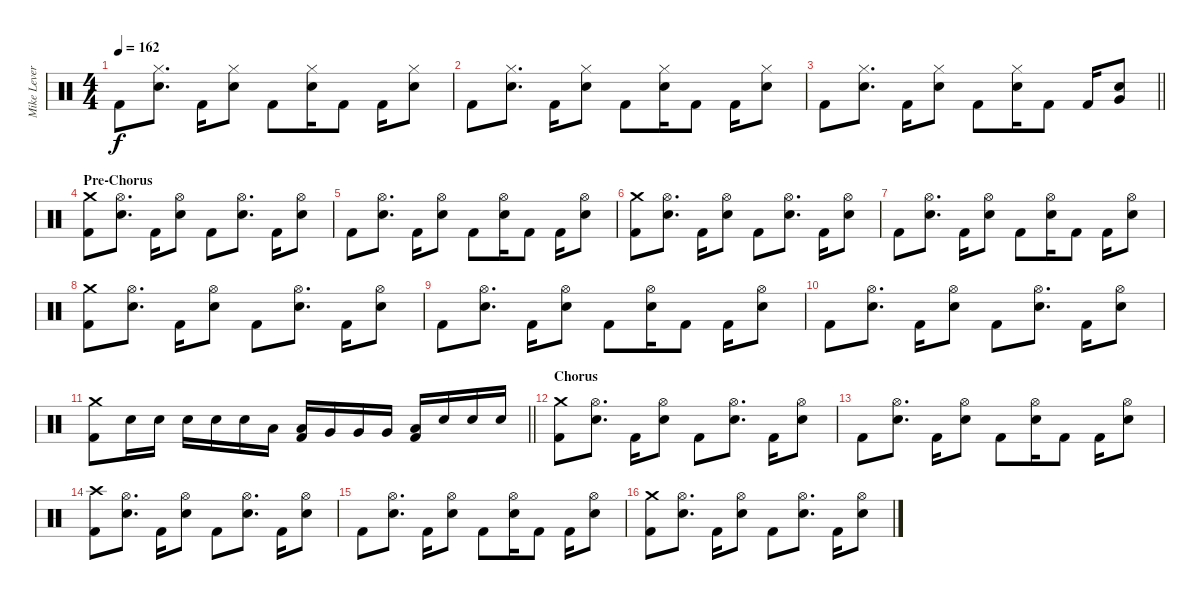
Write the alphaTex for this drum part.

\track ("Mike Leverence - Drums" "Mike Lever") {instrument percussion}
\staff {score}
\articulation defaults
\ts (4 4)
\tempo 162
\clef neutral
\ks c "Kick (hit) 2".8{dy f}
("Hi-Hat (closed)" "Electric Snare (hit)").8{d} "Kick (hit) 2".16 ("Hi-Hat (closed)" "Electric Snare (hit)").8 "Kick (hit) 2".8 ("Hi-Hat (closed)" "Electric Snare (hit)").16 "Kick (hit) 2".8 "Kick (hit) 2".16 ("Hi-Hat (closed)" "Electric Snare (hit)").8 |
"Kick (hit) 2".8 ("Hi-Hat (closed)" "Electric Snare (hit)").8{d} "Kick (hit) 2".16 ("Hi-Hat (closed)" "Electric Snare (hit)").8 "Kick (hit) 2".8 ("Hi-Hat (closed)" "Electric Snare (hit)").16 "Kick (hit) 2".8 "Kick (hit) 2".16 ("Hi-Hat (closed)" "Electric Snare (hit)").8 |
\barLineRight lightlight "Kick (hit) 2".8
("Hi-Hat (closed)" "Electric Snare (hit)").8{d} "Kick (hit) 2".16 ("Hi-Hat (closed)" "Electric Snare (hit)").8 "Kick (hit) 2".8 ("Hi-Hat (closed)" "Electric Snare (hit)").16 "Kick (hit) 2".8 "Kick (hit) 2".16 ("Very Low Tom (hit)" "Electric Snare (hit)").8 |
\section ("" "Pre-Chorus")
("Crash medium (hit)" "Kick (hit) 2").8 ("Hi-Hat (open)" "Electric Snare (hit)").8{d} "Kick (hit) 2".16 ("Hi-Hat (open)" "Electric Snare (hit)").8 "Kick (hit) 2".8 ("Hi-Hat (open)" "Electric Snare (hit)").8{d} "Kick (hit) 2".16 ("Hi-Hat (open)" "Electric Snare (hit)").8 |
"Kick (hit) 2".8 ("Hi-Hat (open)" "Electric Snare (hit)").8{d} "Kick (hit) 2".16 ("Hi-Hat (open)" "Electric Snare (hit)").8 "Kick (hit) 2".8 ("Hi-Hat (open)" "Electric Snare (hit)").16 "Kick (hit) 2".8 "Kick (hit) 2".16 ("Hi-Hat (open)" "Electric Snare (hit)").8 |
("Crash medium (hit)" "Kick (hit) 2").8 ("Hi-Hat (open)" "Electric Snare (hit)").8{d} "Kick (hit) 2".16 ("Hi-Hat (open)" "Electric Snare (hit)").8 "Kick (hit) 2".8 ("Hi-Hat (open)" "Electric Snare (hit)").8{d} "Kick (hit) 2".16 ("Hi-Hat (open)" "Electric Snare (hit)").8 |
"Kick (hit) 2".8 ("Hi-Hat (open)" "Electric Snare (hit)").8{d} "Kick (hit) 2".16 ("Hi-Hat (open)" "Electric Snare (hit)").8 "Kick (hit) 2".8 ("Hi-Hat (open)" "Electric Snare (hit)").16 "Kick (hit) 2".8 "Kick (hit) 2".16 ("Hi-Hat (open)" "Electric Snare (hit)").8 |
("Crash medium (hit)" "Kick (hit) 2").8 ("Hi-Hat (open)" "Electric Snare (hit)").8{d} "Kick (hit) 2".16 ("Hi-Hat (open)" "Electric Snare (hit)").8 "Kick (hit) 2".8 ("Hi-Hat (open)" "Electric Snare (hit)").8{d} "Kick (hit) 2".16 ("Hi-Hat (open)" "Electric Snare (hit)").8 |
"Kick (hit) 2".8 ("Hi-Hat (open)" "Electric Snare (hit)").8{d} "Kick (hit) 2".16 ("Hi-Hat (open)" "Electric Snare (hit)").8 "Kick (hit) 2".8 ("Hi-Hat (open)" "Electric Snare (hit)").16 "Kick (hit) 2".8 "Kick (hit) 2".16 ("Hi-Hat (open)" "Electric Snare (hit)").8 |
"Kick (hit) 2".8 ("Hi-Hat (open)" "Electric Snare (hit)").8{d} "Kick (hit) 2".16 ("Hi-Hat (open)" "Electric Snare (hit)").8 "Kick (hit) 2".8 ("Hi-Hat (open)" "Electric Snare (hit)").8{d} "Kick (hit) 2".16 ("Hi-Hat (open)" "Electric Snare (hit)").8 |
\barLineRight lightlight
("Crash medium (hit)" "Kick (hit) 2").8 "Electric Snare (hit)".16 "Electric Snare (hit)".16 "Electric Snare (hit)".16 "Electric Snare (hit)".16 "Electric Snare (hit)".16 "Low Tom (hit)".16 ("Low Tom (hit)" "Kick (hit) 2").16 "Very Low Tom (hit)".16 "Very Low Tom (hit)".16 "Very Low Tom (hit)".16 ("Low Floor Tom (hit)" "Kick (hit) 2").16 "Electric Snare (hit)".16 "Electric Snare (hit)".16 "Electric Snare (hit)".16 |
\section ("" "Chorus")
("Crash medium (hit)" "Kick (hit) 2").8 ("Hi-Hat (open)" "Electric Snare (hit)").8{d} "Kick (hit) 2".16 ("Hi-Hat (open)" "Electric Snare (hit)").8 "Kick (hit) 2".8 ("Hi-Hat (open)" "Electric Snare (hit)").8{d} "Kick (hit) 2".16 ("Hi-Hat (open)" "Electric Snare (hit)").8 |
"Kick (hit) 2".8 ("Hi-Hat (open)" "Electric Snare (hit)").8{d} "Kick (hit) 2".16 ("Hi-Hat (open)" "Electric Snare (hit)").8 "Kick (hit) 2".8 ("Hi-Hat (open)" "Electric Snare (hit)").16 "Kick (hit) 2".8 "Kick (hit) 2".16 ("Hi-Hat (open)" "Electric Snare (hit)").8 |
("Crash high (hit)" "Kick (hit) 2").8 ("Hi-Hat (open)" "Electric Snare (hit)").8{d} "Kick (hit) 2".16 ("Hi-Hat (open)" "Electric Snare (hit)").8 "Kick (hit) 2".8 ("Hi-Hat (open)" "Electric Snare (hit)").8{d} "Kick (hit) 2".16 ("Hi-Hat (open)" "Electric Snare (hit)").8 |
"Kick (hit) 2".8 ("Hi-Hat (open)" "Electric Snare (hit)").8{d} "Kick (hit) 2".16 ("Hi-Hat (open)" "Electric Snare (hit)").8 "Kick (hit) 2".8 ("Hi-Hat (open)" "Electric Snare (hit)").16 "Kick (hit) 2".8 "Kick (hit) 2".16 ("Hi-Hat (open)" "Electric Snare (hit)").8 |
("Crash medium (hit)" "Kick (hit) 2").8 ("Hi-Hat (open)" "Electric Snare (hit)").8{d} "Kick (hit) 2".16 ("Hi-Hat (open)" "Electric Snare (hit)").8 "Kick (hit) 2".8 ("Hi-Hat (open)" "Electric Snare (hit)").8{d} "Kick (hit) 2".16 ("Hi-Hat (open)" "Electric Snare (hit)").8
